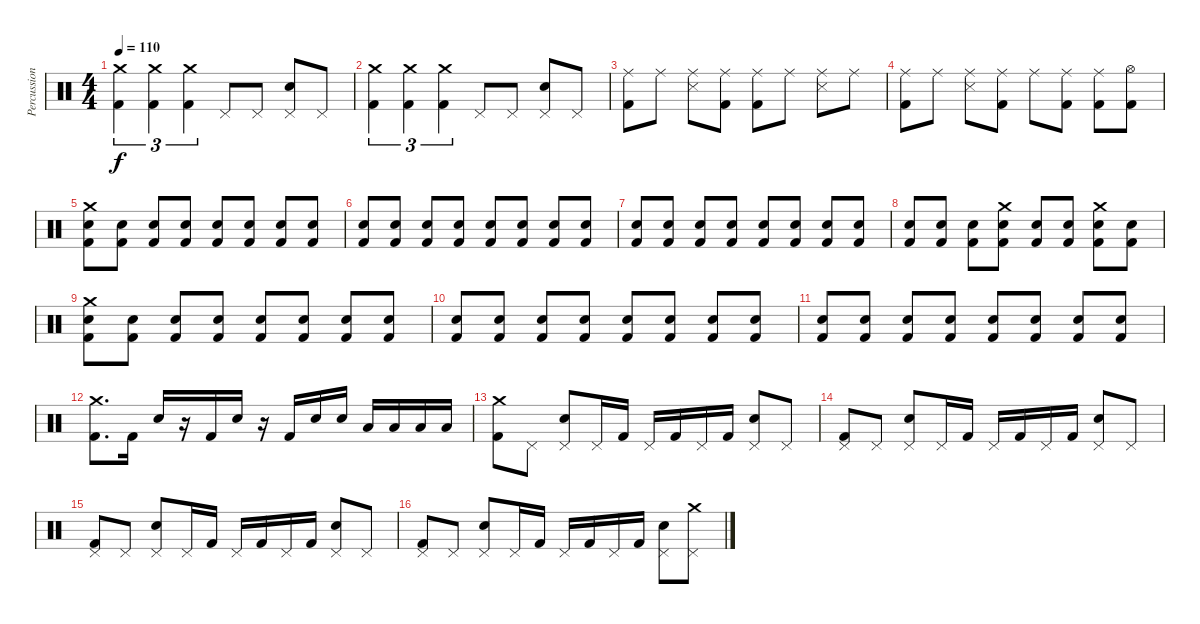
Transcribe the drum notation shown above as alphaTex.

\track ("Percussion" "Percussion") {instrument percussion}
\staff {score}
\articulation defaults
\ts (4 4)
\tempo 110
\clef neutral
\ks c
("Crash medium (hit)" "Kick (hit) 2").4{tu (3 2) dy f} ("Crash medium (hit)" "Kick (hit) 2").4{tu (3 2)} ("Crash medium (hit)" "Kick (hit) 2").4{tu (3 2)} "Pedal Hi-Hat (hit)".8 "Pedal Hi-Hat (hit)".8 ("Pedal Hi-Hat (hit)" "Snare (hit) 2").8 "Pedal Hi-Hat (hit)".8 |
("Crash medium (hit)" "Kick (hit) 2").4{tu (3 2)} ("Crash medium (hit)" "Kick (hit) 2").4{tu (3 2)} ("Crash medium (hit)" "Kick (hit) 2").4{tu (3 2)} "Pedal Hi-Hat (hit)".8 "Pedal Hi-Hat (hit)".8 ("Pedal Hi-Hat (hit)" "Snare (hit) 2").8 "Pedal Hi-Hat (hit)".8 |
("Ride (middle)" "Kick (hit) 2").8 "Ride (middle)".8 ("Ride (middle)" "Snare (side stick) 3").8 ("Ride (middle)" "Kick (hit) 2").8 ("Ride (middle)" "Kick (hit) 2").8 "Ride (middle)".8 ("Ride (middle)" "Snare (side stick) 3").8 "Ride (middle)".8 |
("Ride (middle)" "Kick (hit) 2").8 "Ride (middle)".8 ("Ride (middle)" "Snare (side stick) 3").8 ("Ride (middle)" "Kick (hit) 2").8 "Ride (middle)".8 ("Ride (middle)" "Kick (hit) 2").8 ("Ride (middle)" "Kick (hit) 2").8 ("Hi-Hat (open)" "Kick (hit) 2").8 |
("Snare (hit) 2" "Kick (hit) 2" "Crash medium (hit)").8 ("Snare (hit) 2" "Kick (hit) 2").8 ("Snare (hit) 2" "Kick (hit) 2").8 ("Snare (hit) 2" "Kick (hit) 2").8 ("Snare (hit) 2" "Kick (hit) 2").8 ("Snare (hit) 2" "Kick (hit) 2").8 ("Snare (hit) 2" "Kick (hit) 2").8 ("Snare (hit) 2" "Kick (hit) 2").8 |
("Snare (hit) 2" "Kick (hit) 2").8 ("Snare (hit) 2" "Kick (hit) 2").8 ("Snare (hit) 2" "Kick (hit) 2").8 ("Snare (hit) 2" "Kick (hit) 2").8 ("Snare (hit) 2" "Kick (hit) 2").8 ("Snare (hit) 2" "Kick (hit) 2").8 ("Snare (hit) 2" "Kick (hit) 2").8 ("Snare (hit) 2" "Kick (hit) 2").8 |
("Snare (hit) 2" "Kick (hit) 2").8 ("Snare (hit) 2" "Kick (hit) 2").8 ("Snare (hit) 2" "Kick (hit) 2").8 ("Snare (hit) 2" "Kick (hit) 2").8 ("Snare (hit) 2" "Kick (hit) 2").8 ("Snare (hit) 2" "Kick (hit) 2").8 ("Snare (hit) 2" "Kick (hit) 2").8 ("Snare (hit) 2" "Kick (hit) 2").8 |
("Snare (hit) 2" "Kick (hit) 2").8 ("Snare (hit) 2" "Kick (hit) 2").8 ("Snare (hit) 2" "Kick (hit) 2").8 ("Snare (hit) 2" "Kick (hit) 2" "Crash medium (hit)").8 ("Snare (hit) 2" "Kick (hit) 2").8 ("Snare (hit) 2" "Kick (hit) 2").8 ("Snare (hit) 2" "Kick (hit) 2" "Crash medium (hit)").8 ("Snare (hit) 2" "Kick (hit) 2").8 |
("Snare (hit) 2" "Kick (hit) 2" "Crash medium (hit)").8 ("Snare (hit) 2" "Kick (hit) 2").8 ("Snare (hit) 2" "Kick (hit) 2").8 ("Snare (hit) 2" "Kick (hit) 2").8 ("Snare (hit) 2" "Kick (hit) 2").8 ("Snare (hit) 2" "Kick (hit) 2").8 ("Snare (hit) 2" "Kick (hit) 2").8 ("Snare (hit) 2" "Kick (hit) 2").8 |
("Snare (hit) 2" "Kick (hit) 2").8 ("Snare (hit) 2" "Kick (hit) 2").8 ("Snare (hit) 2" "Kick (hit) 2").8 ("Snare (hit) 2" "Kick (hit) 2").8 ("Snare (hit) 2" "Kick (hit) 2").8 ("Snare (hit) 2" "Kick (hit) 2").8 ("Snare (hit) 2" "Kick (hit) 2").8 ("Snare (hit) 2" "Kick (hit) 2").8 |
("Snare (hit) 2" "Kick (hit) 2").8 ("Snare (hit) 2" "Kick (hit) 2").8 ("Snare (hit) 2" "Kick (hit) 2").8 ("Snare (hit) 2" "Kick (hit) 2").8 ("Snare (hit) 2" "Kick (hit) 2").8 ("Snare (hit) 2" "Kick (hit) 2").8 ("Snare (hit) 2" "Kick (hit) 2").8 ("Snare (hit) 2" "Kick (hit) 2").8 |
("Kick (hit) 2" "Crash medium (hit)").8{d} "Kick (hit) 2".16 "Snare (hit) 2".16 r.16 "Kick (hit) 2".16 "Snare (hit) 2".16 r.16 "Kick (hit) 2".16 "Snare (hit) 2".16 "Snare (hit) 2".16 "Low Floor Tom (hit)".16 "Low Floor Tom (hit)".16 "Low Tom (hit)".16 "Low Tom (hit)".16 |
("Crash medium (hit)" "Kick (hit) 2").8 "Pedal Hi-Hat (hit)".8 ("Pedal Hi-Hat (hit)" "Electric Snare (hit)").8 "Pedal Hi-Hat (hit)".16 "Kick (hit) 2".16 "Pedal Hi-Hat (hit)".16 "Kick (hit) 2".16 "Pedal Hi-Hat (hit)".16 "Kick (hit) 2".16 ("Pedal Hi-Hat (hit)" "Electric Snare (hit)").8 "Pedal Hi-Hat (hit)".8 |
("Pedal Hi-Hat (hit)" "Kick (hit) 2").8 "Pedal Hi-Hat (hit)".8 ("Pedal Hi-Hat (hit)" "Electric Snare (hit)").8 "Pedal Hi-Hat (hit)".16 "Kick (hit) 2".16 "Pedal Hi-Hat (hit)".16 "Kick (hit) 2".16 "Pedal Hi-Hat (hit)".16 "Kick (hit) 2".16 ("Pedal Hi-Hat (hit)" "Electric Snare (hit)").8 "Pedal Hi-Hat (hit)".8 |
("Pedal Hi-Hat (hit)" "Kick (hit) 2").8 "Pedal Hi-Hat (hit)".8 ("Pedal Hi-Hat (hit)" "Electric Snare (hit)").8 "Pedal Hi-Hat (hit)".16 "Kick (hit) 2".16 "Pedal Hi-Hat (hit)".16 "Kick (hit) 2".16 "Pedal Hi-Hat (hit)".16 "Kick (hit) 2".16 ("Pedal Hi-Hat (hit)" "Electric Snare (hit)").8 "Pedal Hi-Hat (hit)".8 |
("Pedal Hi-Hat (hit)" "Kick (hit) 2").8 "Pedal Hi-Hat (hit)".8 ("Pedal Hi-Hat (hit)" "Electric Snare (hit)").8 "Pedal Hi-Hat (hit)".16 "Kick (hit) 2".16 "Pedal Hi-Hat (hit)".16 "Kick (hit) 2".16 "Pedal Hi-Hat (hit)".16 "Kick (hit) 2".16 ("Pedal Hi-Hat (hit)" "Electric Snare (hit)").8 ("Pedal Hi-Hat (hit)" "Crash medium (hit)").8
